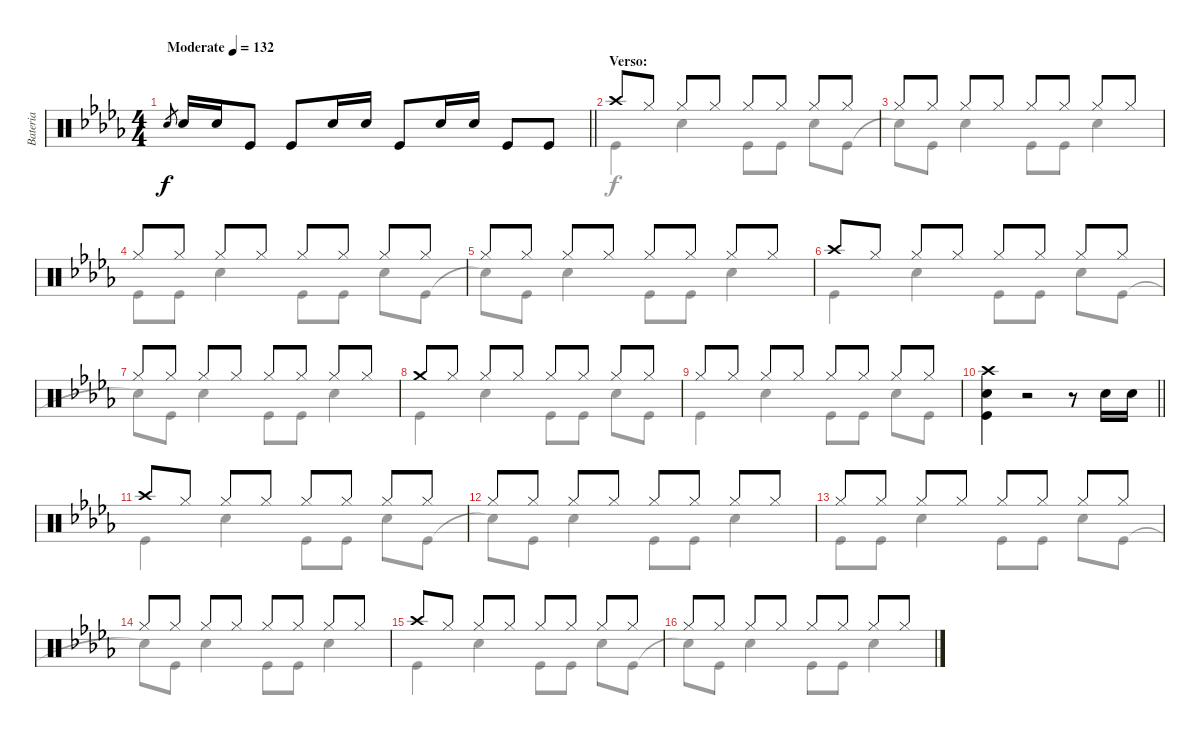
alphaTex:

\track ("Bateria" "Bateria") {instrument percussion}
\staff {score}
\articulation defaults
\voice
\ts (4 4)
\tempo (132 "Moderate")
\clef neutral
\barLineRight lightlight
\ks db "Snare (hit) 2".8{gr dy f} "Snare (hit) 2".16 "Snare (hit) 2".16 "Kick (hit)".8 "Kick (hit)".8 "Snare (hit) 2".16 "Snare (hit) 2".16 "Kick (hit)".8 "Snare (hit) 2".16 "Snare (hit) 2".16 "Kick (hit)".8 "Kick (hit)".8
|
\section ("" "Verso:")
"Crash high (hit)".8 "Hi-Hat (closed)".8 "Hi-Hat (closed)".8 "Hi-Hat (closed)".8 "Hi-Hat (closed)".8 "Hi-Hat (closed)".8 "Hi-Hat (closed)".8 "Hi-Hat (closed)".8 |
"Hi-Hat (closed)".8 "Hi-Hat (closed)".8 "Hi-Hat (closed)".8 "Hi-Hat (closed)".8 "Hi-Hat (closed)".8 "Hi-Hat (closed)".8 "Hi-Hat (closed)".8 "Hi-Hat (closed)".8 |
"Hi-Hat (closed)".8 "Hi-Hat (closed)".8 "Hi-Hat (closed)".8 "Hi-Hat (closed)".8 "Hi-Hat (closed)".8 "Hi-Hat (closed)".8 "Hi-Hat (closed)".8 "Hi-Hat (closed)".8 |
"Hi-Hat (closed)".8 "Hi-Hat (closed)".8 "Hi-Hat (closed)".8 "Hi-Hat (closed)".8 "Hi-Hat (closed)".8 "Hi-Hat (closed)".8 "Hi-Hat (closed)".8 "Hi-Hat (closed)".8 |
"Crash high (hit)".8 "Hi-Hat (closed)".8 "Hi-Hat (closed)".8 "Hi-Hat (closed)".8 "Hi-Hat (closed)".8 "Hi-Hat (closed)".8 "Hi-Hat (closed)".8 "Hi-Hat (closed)".8 |
"Hi-Hat (closed)".8 "Hi-Hat (closed)".8 "Hi-Hat (closed)".8 "Hi-Hat (closed)".8 "Hi-Hat (closed)".8 "Hi-Hat (closed)".8 "Hi-Hat (closed)".8 "Hi-Hat (closed)".8 |
"Crash medium (hit)".8 "Hi-Hat (closed)".8 "Hi-Hat (closed)".8 "Hi-Hat (closed)".8 "Hi-Hat (closed)".8 "Hi-Hat (closed)".8 "Hi-Hat (closed)".8 "Hi-Hat (closed)".8 |
"Hi-Hat (closed)".8 "Hi-Hat (closed)".8 "Hi-Hat (closed)".8 "Hi-Hat (closed)".8 "Hi-Hat (closed)".8 "Hi-Hat (closed)".8 "Hi-Hat (closed)".8 "Hi-Hat (closed)".8 |
\barLineRight lightlight
("Crash high (hit)" "Snare (hit) 2" "Kick (hit)").4 r.2 r.8 "Snare (hit) 2".16 "Snare (hit) 2".16 |
"Crash high (hit)".8 "Hi-Hat (closed)".8 "Hi-Hat (closed)".8 "Hi-Hat (closed)".8 "Hi-Hat (closed)".8 "Hi-Hat (closed)".8 "Hi-Hat (closed)".8 "Hi-Hat (closed)".8 |
"Hi-Hat (closed)".8 "Hi-Hat (closed)".8 "Hi-Hat (closed)".8 "Hi-Hat (closed)".8 "Hi-Hat (closed)".8 "Hi-Hat (closed)".8 "Hi-Hat (closed)".8 "Hi-Hat (closed)".8 |
"Hi-Hat (closed)".8 "Hi-Hat (closed)".8 "Hi-Hat (closed)".8 "Hi-Hat (closed)".8 "Hi-Hat (closed)".8 "Hi-Hat (closed)".8 "Hi-Hat (closed)".8 "Hi-Hat (closed)".8 |
"Hi-Hat (closed)".8 "Hi-Hat (closed)".8 "Hi-Hat (closed)".8 "Hi-Hat (closed)".8 "Hi-Hat (closed)".8 "Hi-Hat (closed)".8 "Hi-Hat (closed)".8 "Hi-Hat (closed)".8 |
"Crash high (hit)".8 "Hi-Hat (closed)".8 "Hi-Hat (closed)".8 "Hi-Hat (closed)".8 "Hi-Hat (closed)".8 "Hi-Hat (closed)".8 "Hi-Hat (closed)".8 "Hi-Hat (closed)".8 |
"Hi-Hat (closed)".8 "Hi-Hat (closed)".8 "Hi-Hat (closed)".8 "Hi-Hat (closed)".8 "Hi-Hat (closed)".8 "Hi-Hat (closed)".8 "Hi-Hat (closed)".8 "Hi-Hat (closed)".8
\voice
\clef neutral
\ottava regular
\simile none
\barLineRight lightlight
\ks db
|
"Kick (hit)".4 "Snare (hit) 2".4 "Kick (hit)".8 "Kick (hit)".8 "Snare (hit) 2".8 "Kick (hit)".8 |
"Snare (hit)"{t}.8 "Kick (hit)".8 "Snare (hit) 2".4 "Kick (hit)".8 "Kick (hit)".8 "Snare (hit) 2".4 |
"Kick (hit)".8 "Kick (hit)".8 "Snare (hit) 2".4 "Kick (hit)".8 "Kick (hit)".8 "Snare (hit) 2".8 "Kick (hit)".8 |
"Snare (hit) 2"{t}.8 "Kick (hit)".8 "Snare (hit) 2".4 "Kick (hit)".8 "Kick (hit)".8 "Snare (hit) 2".4 |
"Kick (hit)".4 "Snare (hit) 2".4 "Kick (hit)".8 "Kick (hit)".8 "Snare (hit) 2".8 "Kick (hit)".8 |
"Snare (hit)"{t}.8 "Kick (hit)".8 "Snare (hit) 2".4 "Kick (hit)".8 "Kick (hit)".8 "Snare (hit) 2".4 |
"Kick (hit)".4 "Snare (hit) 2".4 "Kick (hit)".8 "Kick (hit)".8 "Snare (hit) 2".8 "Kick (hit)".8 |
"Kick (hit)".4 "Snare (hit) 2".4 "Kick (hit)".8 "Kick (hit)".8 "Snare (hit) 2".8 "Kick (hit)".8 |
\barLineRight lightlight
|
"Kick (hit)".4 "Snare (hit) 2".4 "Kick (hit)".8 "Kick (hit)".8 "Snare (hit) 2".8 "Kick (hit)".8 |
"Snare (hit)"{t}.8 "Kick (hit)".8 "Snare (hit) 2".4 "Kick (hit)".8 "Kick (hit)".8 "Snare (hit) 2".4 |
"Kick (hit)".8 "Kick (hit)".8 "Snare (hit) 2".4 "Kick (hit)".8 "Kick (hit)".8 "Snare (hit) 2".8 "Kick (hit)".8 |
"Snare (hit) 2"{t}.8 "Kick (hit)".8 "Snare (hit) 2".4 "Kick (hit)".8 "Kick (hit)".8 "Snare (hit) 2".4 |
"Kick (hit)".4 "Snare (hit) 2".4 "Kick (hit)".8 "Kick (hit)".8 "Snare (hit) 2".8 "Kick (hit)".8 |
"Snare (hit)"{t}.8 "Kick (hit)".8 "Snare (hit) 2".4 "Kick (hit)".8 "Kick (hit)".8 "Snare (hit) 2".4
